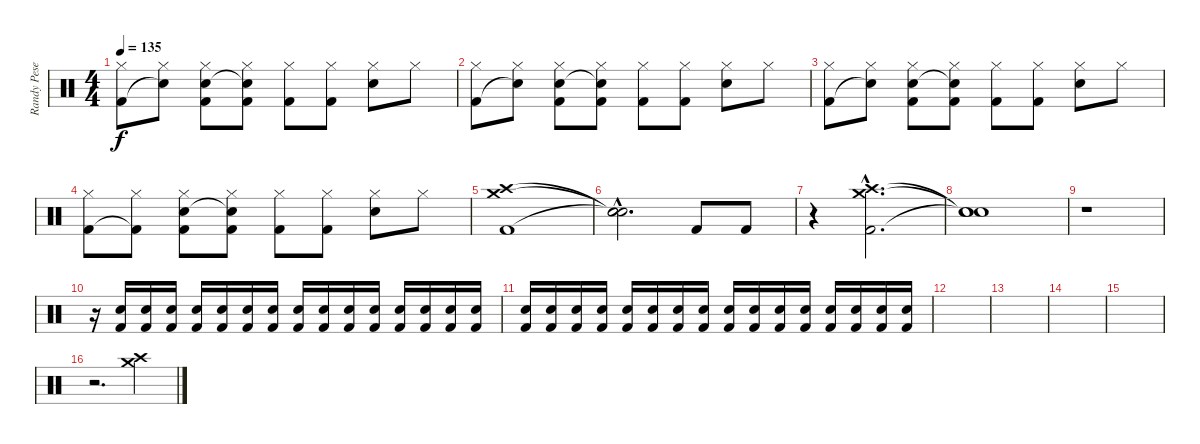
\track ("Randy Pesek" "Randy Pese") {instrument percussion}
\staff {score}
\articulation defaults
\ts (4 4)
\tempo 135
\clef neutral
\ks c
("Hi-Hat (closed)" "Kick (hit) 2").8{dy f} ("Hi-Hat (closed)" "Snare (hit)"{t}).8 ("Hi-Hat (closed)" "Snare (hit) 2" "Kick (hit) 2").8 ("Hi-Hat (closed)" "Snare (hit)"{t} "Kick (hit) 2").8 ("Hi-Hat (closed)" "Kick (hit) 2").8 ("Hi-Hat (closed)" "Kick (hit) 2").8 ("Hi-Hat (closed)" "Snare (hit) 2").8 "Hi-Hat (closed)".8 |
("Hi-Hat (closed)" "Kick (hit) 2").8 ("Hi-Hat (closed)" "Snare (hit)"{t}).8 ("Hi-Hat (closed)" "Snare (hit) 2" "Kick (hit) 2").8 ("Hi-Hat (closed)" "Snare (hit)"{t} "Kick (hit) 2").8 ("Hi-Hat (closed)" "Kick (hit) 2").8 ("Hi-Hat (closed)" "Kick (hit) 2").8 ("Hi-Hat (closed)" "Snare (hit) 2").8 "Hi-Hat (closed)".8 |
("Hi-Hat (closed)" "Kick (hit) 2").8 ("Hi-Hat (closed)" "Snare (hit)"{t}).8 ("Hi-Hat (closed)" "Snare (hit) 2" "Kick (hit) 2").8 ("Hi-Hat (closed)" "Snare (hit)"{t} "Kick (hit) 2").8 ("Hi-Hat (closed)" "Kick (hit) 2").8 ("Hi-Hat (closed)" "Kick (hit) 2").8 ("Hi-Hat (closed)" "Snare (hit) 2").8 "Hi-Hat (closed)".8 |
("Hi-Hat (closed)" "Kick (hit) 2").8 ("Hi-Hat (closed)" "Kick (hit) 2"{t}).8 ("Hi-Hat (closed)" "Snare (hit) 2" "Kick (hit) 2").8 ("Hi-Hat (closed)" "Snare (hit)"{t} "Kick (hit) 2").8 ("Hi-Hat (closed)" "Kick (hit) 2").8 ("Hi-Hat (closed)" "Kick (hit) 2").8 ("Hi-Hat (closed)" "Snare (hit) 2").8 "Hi-Hat (closed)".8 |
("Crash high (hit)" "Crash medium (hit)" "Kick (hit) 2").1 |
("Snare (hit)"{hac t} "Snare (hit)"{hac t} "Snare (hit)"{hac t}).2{d} "Kick (hit) 2".8 "Kick (hit) 2".8 |
r.4 ("Crash medium (hit)"{hac} "Crash high (hit)"{hac} "Kick (hit) 2"{hac}).2{d} |
("Snare (hit)"{t} "Snare (hit)"{t} "Snare (hit)"{t}).1 |
r.1 |
r.16 ("Snare (hit) 2" "Kick (hit) 2").16 ("Snare (hit) 2" "Kick (hit) 2").16 ("Snare (hit) 2" "Kick (hit) 2").16 ("Snare (hit) 2" "Kick (hit) 2").16 ("Snare (hit) 2" "Kick (hit) 2").16 ("Snare (hit) 2" "Kick (hit) 2").16 ("Snare (hit) 2" "Kick (hit) 2").16 ("Snare (hit) 2" "Kick (hit) 2").16 ("Snare (hit) 2" "Kick (hit) 2").16 ("Snare (hit) 2" "Kick (hit) 2").16 ("Snare (hit) 2" "Kick (hit) 2").16 ("Snare (hit) 2" "Kick (hit) 2").16 ("Snare (hit) 2" "Kick (hit) 2").16 ("Snare (hit) 2" "Kick (hit) 2").16 ("Snare (hit) 2" "Kick (hit) 2").16 |
("Snare (hit) 2" "Kick (hit) 2").16 ("Snare (hit) 2" "Kick (hit) 2").16 ("Snare (hit) 2" "Kick (hit) 2").16 ("Snare (hit) 2" "Kick (hit) 2").16 ("Snare (hit) 2" "Kick (hit) 2").16 ("Snare (hit) 2" "Kick (hit) 2").16 ("Snare (hit) 2" "Kick (hit) 2").16 ("Snare (hit) 2" "Kick (hit) 2").16 ("Snare (hit) 2" "Kick (hit) 2").16 ("Snare (hit) 2" "Kick (hit) 2").16 ("Snare (hit) 2" "Kick (hit) 2").16 ("Snare (hit) 2" "Kick (hit) 2").16 ("Snare (hit) 2" "Kick (hit) 2").16 ("Snare (hit) 2" "Kick (hit) 2").16 ("Snare (hit) 2" "Kick (hit) 2").16 ("Snare (hit) 2" "Kick (hit) 2").16 |
|
|
|
|
r.2{d} ("Crash high (hit)" "Crash medium (hit)").4
